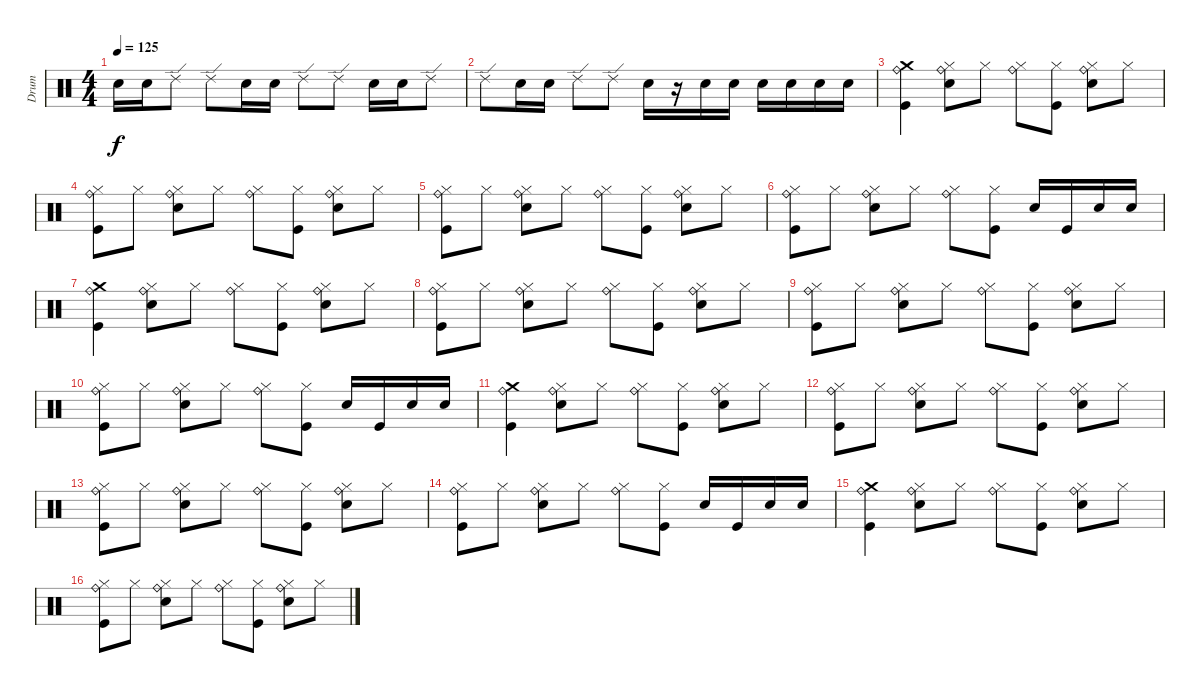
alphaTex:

\track ("Drum" "Drum") {instrument percussion}
\staff {score}
\articulation defaults
\ts (4 4)
\tempo 125
\clef neutral
\ks c "Electric Snare (hit)".16{dy f} "Electric Snare (hit)".16 "Ride (edge) 2".8 "Ride (edge) 2".8 "Electric Snare (hit)".16 "Electric Snare (hit)".16 "Ride (edge) 2".8 "Ride (edge) 2".8 "Electric Snare (hit)".16 "Electric Snare (hit)".16 "Ride (edge) 2".8
|
"Ride (edge) 2".8 "Electric Snare (hit)".16 "Electric Snare (hit)".16 "Ride (edge) 2".8 "Ride (edge) 2".8 "Electric Snare (hit)".16 r.16 "Electric Snare (hit)".16 "Electric Snare (hit)".16 "Electric Snare (hit)".16 "Electric Snare (hit)".16 "Electric Snare (hit)".16 "Electric Snare (hit)".16 |
("Kick (hit)" "Crash medium (hit)" "Ride (bell)").4 ("Electric Snare (hit)" "Hi-Hat (closed)" "Ride (bell)").8 "Hi-Hat (closed)".8 ("Hi-Hat (closed)" "Ride (bell)").8 ("Kick (hit)" "Hi-Hat (closed)").8 ("Electric Snare (hit)" "Hi-Hat (closed)" "Ride (bell)").8 "Hi-Hat (closed)".8 |
("Kick (hit)" "Hi-Hat (closed)" "Ride (bell)").8 "Hi-Hat (closed)".8 ("Electric Snare (hit)" "Hi-Hat (closed)" "Ride (bell)").8 "Hi-Hat (closed)".8 ("Hi-Hat (closed)" "Ride (bell)").8 ("Kick (hit)" "Hi-Hat (closed)").8 ("Electric Snare (hit)" "Hi-Hat (closed)" "Ride (bell)").8 "Hi-Hat (closed)".8 |
("Kick (hit)" "Hi-Hat (closed)" "Ride (bell)").8 "Hi-Hat (closed)".8 ("Electric Snare (hit)" "Hi-Hat (closed)" "Ride (bell)").8 "Hi-Hat (closed)".8 ("Hi-Hat (closed)" "Ride (bell)").8 ("Kick (hit)" "Hi-Hat (closed)").8 ("Electric Snare (hit)" "Hi-Hat (closed)" "Ride (bell)").8 "Hi-Hat (closed)".8 |
("Kick (hit)" "Hi-Hat (closed)" "Ride (bell)").8 "Hi-Hat (closed)".8 ("Electric Snare (hit)" "Hi-Hat (closed)" "Ride (bell)").8 "Hi-Hat (closed)".8 ("Hi-Hat (closed)" "Ride (bell)").8 ("Kick (hit)" "Hi-Hat (closed)").8 "Electric Snare (hit)".16 "Kick (hit)".16 "Snare (hit) 2".16 "Electric Snare (hit)".16 |
("Kick (hit)" "Crash medium (hit)" "Ride (bell)").4 ("Electric Snare (hit)" "Hi-Hat (closed)" "Ride (bell)").8 "Hi-Hat (closed)".8 ("Hi-Hat (closed)" "Ride (bell)").8 ("Kick (hit)" "Hi-Hat (closed)").8 ("Electric Snare (hit)" "Hi-Hat (closed)" "Ride (bell)").8 "Hi-Hat (closed)".8 |
("Kick (hit)" "Hi-Hat (closed)" "Ride (bell)").8 "Hi-Hat (closed)".8 ("Electric Snare (hit)" "Hi-Hat (closed)" "Ride (bell)").8 "Hi-Hat (closed)".8 ("Hi-Hat (closed)" "Ride (bell)").8 ("Kick (hit)" "Hi-Hat (closed)").8 ("Electric Snare (hit)" "Hi-Hat (closed)" "Ride (bell)").8 "Hi-Hat (closed)".8 |
("Kick (hit)" "Hi-Hat (closed)" "Ride (bell)").8 "Hi-Hat (closed)".8 ("Electric Snare (hit)" "Hi-Hat (closed)" "Ride (bell)").8 "Hi-Hat (closed)".8 ("Hi-Hat (closed)" "Ride (bell)").8 ("Kick (hit)" "Hi-Hat (closed)").8 ("Electric Snare (hit)" "Hi-Hat (closed)" "Ride (bell)").8 "Hi-Hat (closed)".8 |
("Kick (hit)" "Hi-Hat (closed)" "Ride (bell)").8 "Hi-Hat (closed)".8 ("Electric Snare (hit)" "Hi-Hat (closed)" "Ride (bell)").8 "Hi-Hat (closed)".8 ("Hi-Hat (closed)" "Ride (bell)").8 ("Kick (hit)" "Hi-Hat (closed)").8 "Electric Snare (hit)".16 "Kick (hit)".16 "Snare (hit) 2".16 "Electric Snare (hit)".16 |
("Kick (hit)" "Crash medium (hit)" "Ride (bell)").4 ("Electric Snare (hit)" "Hi-Hat (closed)" "Ride (bell)").8 "Hi-Hat (closed)".8 ("Hi-Hat (closed)" "Ride (bell)").8 ("Kick (hit)" "Hi-Hat (closed)").8 ("Electric Snare (hit)" "Hi-Hat (closed)" "Ride (bell)").8 "Hi-Hat (closed)".8 |
("Kick (hit)" "Hi-Hat (closed)" "Ride (bell)").8 "Hi-Hat (closed)".8 ("Electric Snare (hit)" "Hi-Hat (closed)" "Ride (bell)").8 "Hi-Hat (closed)".8 ("Hi-Hat (closed)" "Ride (bell)").8 ("Kick (hit)" "Hi-Hat (closed)").8 ("Electric Snare (hit)" "Hi-Hat (closed)" "Ride (bell)").8 "Hi-Hat (closed)".8 |
("Kick (hit)" "Hi-Hat (closed)" "Ride (bell)").8 "Hi-Hat (closed)".8 ("Electric Snare (hit)" "Hi-Hat (closed)" "Ride (bell)").8 "Hi-Hat (closed)".8 ("Hi-Hat (closed)" "Ride (bell)").8 ("Kick (hit)" "Hi-Hat (closed)").8 ("Electric Snare (hit)" "Hi-Hat (closed)" "Ride (bell)").8 "Hi-Hat (closed)".8 |
("Kick (hit)" "Hi-Hat (closed)" "Ride (bell)").8 "Hi-Hat (closed)".8 ("Electric Snare (hit)" "Hi-Hat (closed)" "Ride (bell)").8 "Hi-Hat (closed)".8 ("Hi-Hat (closed)" "Ride (bell)").8 ("Kick (hit)" "Hi-Hat (closed)").8 "Electric Snare (hit)".16 "Kick (hit)".16 "Snare (hit) 2".16 "Electric Snare (hit)".16 |
("Kick (hit)" "Crash medium (hit)" "Ride (bell)").4 ("Electric Snare (hit)" "Hi-Hat (closed)" "Ride (bell)").8 "Hi-Hat (closed)".8 ("Hi-Hat (closed)" "Ride (bell)").8 ("Kick (hit)" "Hi-Hat (closed)").8 ("Electric Snare (hit)" "Hi-Hat (closed)" "Ride (bell)").8 "Hi-Hat (closed)".8 |
("Kick (hit)" "Hi-Hat (closed)" "Ride (bell)").8 "Hi-Hat (closed)".8 ("Electric Snare (hit)" "Hi-Hat (closed)" "Ride (bell)").8 "Hi-Hat (closed)".8 ("Hi-Hat (closed)" "Ride (bell)").8 ("Kick (hit)" "Hi-Hat (closed)").8 ("Electric Snare (hit)" "Hi-Hat (closed)" "Ride (bell)").8 "Hi-Hat (closed)".8
